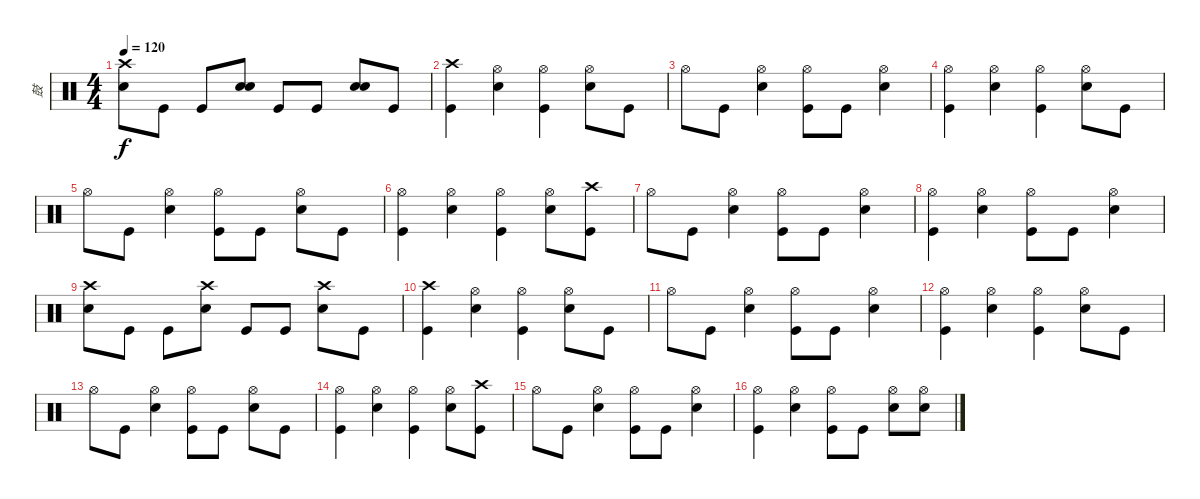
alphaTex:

\track ("鼓" "鼓") {instrument percussion}
\staff {score}
\articulation defaults
\ts (4 4)
\tempo 120
\clef neutral
\ks c
("Electric Snare (hit)" "Crash high (hit)").8{dy f} "Kick (hit)".8 "Kick (hit)".8 ("Electric Snare (hit)" "Electric Snare (hit)").8 "Kick (hit)".8 "Kick (hit)".8 ("Electric Snare (hit)" "Electric Snare (hit)").8 "Kick (hit)".8 |
("Crash high (hit)" "Kick (hit)").4 ("Hi-Hat (open)" "Electric Snare (hit)").4 ("Hi-Hat (open)" "Kick (hit)").4 ("Electric Snare (hit)" "Hi-Hat (open)").8 "Kick (hit)".8 |
"Hi-Hat (open)".8 "Kick (hit)".8 ("Hi-Hat (open)" "Electric Snare (hit)").4 ("Hi-Hat (open)" "Kick (hit)").8 "Kick (hit)".8 ("Electric Snare (hit)" "Hi-Hat (open)").4 |
("Hi-Hat (open)" "Kick (hit)").4 ("Hi-Hat (open)" "Electric Snare (hit)").4 ("Hi-Hat (open)" "Kick (hit)").4 ("Electric Snare (hit)" "Hi-Hat (open)").8 "Kick (hit)".8 |
"Hi-Hat (open)".8 "Kick (hit)".8 ("Hi-Hat (open)" "Electric Snare (hit)").4 ("Hi-Hat (open)" "Kick (hit)").8 "Kick (hit)".8 ("Electric Snare (hit)" "Hi-Hat (open)").8 "Kick (hit)".8 |
("Hi-Hat (open)" "Kick (hit)").4 ("Hi-Hat (open)" "Electric Snare (hit)").4 ("Hi-Hat (open)" "Kick (hit)").4 ("Electric Snare (hit)" "Hi-Hat (open)").8 ("Kick (hit)" "Crash high (hit)").8 |
"Hi-Hat (open)".8 "Kick (hit)".8 ("Hi-Hat (open)" "Electric Snare (hit)").4 ("Hi-Hat (open)" "Kick (hit)").8 "Kick (hit)".8 ("Electric Snare (hit)" "Hi-Hat (open)").4 |
("Hi-Hat (open)" "Kick (hit)").4 ("Hi-Hat (open)" "Electric Snare (hit)").4 ("Hi-Hat (open)" "Kick (hit)").8 "Kick (hit)".8 ("Electric Snare (hit)" "Hi-Hat (open)").4 |
("Electric Snare (hit)" "Crash high (hit)").8 "Kick (hit)".8 "Kick (hit)".8 ("Electric Snare (hit)" "Crash high (hit)").8 "Kick (hit)".8 "Kick (hit)".8 ("Electric Snare (hit)" "Crash high (hit)").8 "Kick (hit)".8 |
("Crash high (hit)" "Kick (hit)").4 ("Hi-Hat (open)" "Electric Snare (hit)").4 ("Hi-Hat (open)" "Kick (hit)").4 ("Electric Snare (hit)" "Hi-Hat (open)").8 "Kick (hit)".8 |
"Hi-Hat (open)".8 "Kick (hit)".8 ("Hi-Hat (open)" "Electric Snare (hit)").4 ("Hi-Hat (open)" "Kick (hit)").8 "Kick (hit)".8 ("Electric Snare (hit)" "Hi-Hat (open)").4 |
("Hi-Hat (open)" "Kick (hit)").4 ("Hi-Hat (open)" "Electric Snare (hit)").4 ("Hi-Hat (open)" "Kick (hit)").4 ("Electric Snare (hit)" "Hi-Hat (open)").8 "Kick (hit)".8 |
"Hi-Hat (open)".8 "Kick (hit)".8 ("Hi-Hat (open)" "Electric Snare (hit)").4 ("Hi-Hat (open)" "Kick (hit)").8 "Kick (hit)".8 ("Electric Snare (hit)" "Hi-Hat (open)").8 "Kick (hit)".8 |
("Hi-Hat (open)" "Kick (hit)").4 ("Hi-Hat (open)" "Electric Snare (hit)").4 ("Hi-Hat (open)" "Kick (hit)").4 ("Electric Snare (hit)" "Hi-Hat (open)").8 ("Kick (hit)" "Crash high (hit)").8 |
"Hi-Hat (open)".8 "Kick (hit)".8 ("Hi-Hat (open)" "Electric Snare (hit)").4 ("Hi-Hat (open)" "Kick (hit)").8 "Kick (hit)".8 ("Electric Snare (hit)" "Hi-Hat (open)").4 |
("Hi-Hat (open)" "Kick (hit)").4 ("Hi-Hat (open)" "Electric Snare (hit)").4 ("Hi-Hat (open)" "Kick (hit)").8 "Kick (hit)".8 ("Electric Snare (hit)" "Hi-Hat (open)").8 ("Hi-Hat (open)" "Electric Snare (hit)").8
